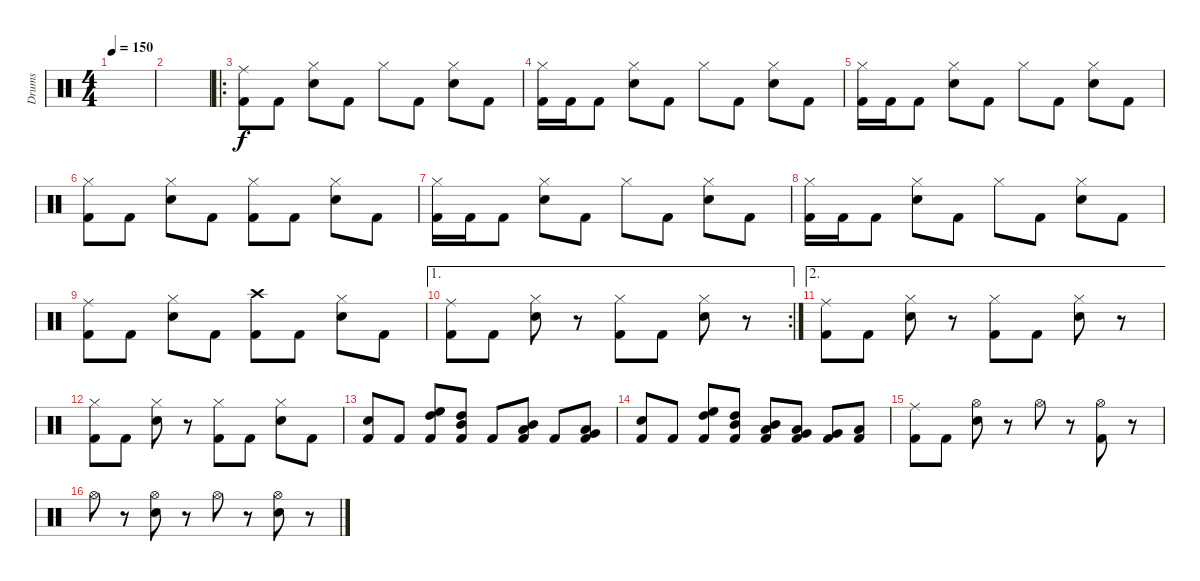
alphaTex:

\track ("Drums" "Drums") {instrument percussion}
\staff {score}
\articulation defaults
\ts (4 4)
\tempo 150
\clef neutral
\ks c
|
|
\ro
("Ride (middle)" "Kick (hit) 2").8 "Kick (hit) 2".8 ("Hi-Hat (closed)" "Electric Snare (hit)").8 "Kick (hit) 2".8 "Hi-Hat (closed)".8 "Kick (hit) 2".8 ("Hi-Hat (closed)" "Electric Snare (hit)").8 "Kick (hit) 2".8 |
("Hi-Hat (closed)" "Kick (hit) 2").16 "Kick (hit) 2".16 "Kick (hit) 2".8 ("Hi-Hat (closed)" "Electric Snare (hit)").8 "Kick (hit) 2".8 "Hi-Hat (closed)".8 "Kick (hit) 2".8 ("Hi-Hat (closed)" "Electric Snare (hit)").8 "Kick (hit) 2".8 |
("Hi-Hat (closed)" "Kick (hit) 2").16 "Kick (hit) 2".16 "Kick (hit) 2".8 ("Hi-Hat (closed)" "Electric Snare (hit)").8 "Kick (hit) 2".8 "Hi-Hat (closed)".8 "Kick (hit) 2".8 ("Hi-Hat (closed)" "Electric Snare (hit)").8 "Kick (hit) 2".8 |
("Hi-Hat (closed)" "Kick (hit) 2").8 "Kick (hit) 2".8 ("Hi-Hat (closed)" "Electric Snare (hit)").8 "Kick (hit) 2".8 ("Hi-Hat (closed)" "Kick (hit) 2").8 "Kick (hit) 2".8 ("Hi-Hat (closed)" "Electric Snare (hit)").8 "Kick (hit) 2".8 |
("Hi-Hat (closed)" "Kick (hit) 2").16 "Kick (hit) 2".16 "Kick (hit) 2".8 ("Hi-Hat (closed)" "Electric Snare (hit)").8 "Kick (hit) 2".8 "Hi-Hat (closed)".8 "Kick (hit) 2".8 ("Hi-Hat (closed)" "Electric Snare (hit)").8 "Kick (hit) 2".8 |
("Hi-Hat (closed)" "Kick (hit) 2").16 "Kick (hit) 2".16 "Kick (hit) 2".8 ("Hi-Hat (closed)" "Electric Snare (hit)").8 "Kick (hit) 2".8 "Hi-Hat (closed)".8 "Kick (hit) 2".8 ("Hi-Hat (closed)" "Electric Snare (hit)").8 "Kick (hit) 2".8 |
("Ride (middle)" "Kick (hit) 2").8 "Kick (hit) 2".8 ("Hi-Hat (closed)" "Electric Snare (hit)").8 "Kick (hit) 2".8 ("Crash high (hit)" "Kick (hit) 2").8 "Kick (hit) 2".8 ("Hi-Hat (closed)" "Electric Snare (hit)").8 "Kick (hit) 2".8 |
\ae 1
\rc 2
("Ride (middle)" "Kick (hit) 2").8 "Kick (hit) 2".8 ("Hi-Hat (closed)" "Electric Snare (hit)").8 r.8 ("Hi-Hat (closed)" "Kick (hit) 2").8 "Kick (hit) 2".8 ("Hi-Hat (closed)" "Electric Snare (hit)").8 r.8 |
\ae 2
("Ride (middle)" "Kick (hit) 2").8 "Kick (hit) 2".8 ("Hi-Hat (closed)" "Electric Snare (hit)").8 r.8 ("Hi-Hat (closed)" "Kick (hit) 2").8 "Kick (hit) 2".8 ("Hi-Hat (closed)" "Electric Snare (hit)").8 r.8 |
("Hi-Hat (closed)" "Kick (hit) 2").8 "Kick (hit) 2".8 ("Hi-Hat (closed)" "Electric Snare (hit)").8 r.8 ("Hi-Hat (closed)" "Kick (hit) 2").8 "Kick (hit) 2".8 ("Hi-Hat (closed)" "Electric Snare (hit)").8 "Kick (hit) 2".8 |
("Electric Snare (hit)" "Kick (hit) 2").8 "Kick (hit) 2".8 ("High Floor Tom (hit)" "High Tom (hit)" "Kick (hit) 2").8 ("Mid Tom (hit)" "High Tom (hit)" "Kick (hit) 2").8 "Kick (hit) 2".8 ("Mid Tom (hit)" "Low Tom (hit)" "Kick (hit) 2").8 "Kick (hit) 2".8 ("Very Low Tom (hit)" "Low Tom (hit)" "Kick (hit) 2").8 |
("Electric Snare (hit)" "Kick (hit) 2").8 "Kick (hit) 2".8 ("High Floor Tom (hit)" "High Tom (hit)" "Kick (hit) 2").8 ("Mid Tom (hit)" "High Tom (hit)" "Kick (hit) 2").8 ("Mid Tom (hit)" "Low Tom (hit)" "Kick (hit) 2").8 ("Very Low Tom (hit)" "Low Tom (hit)" "Kick (hit) 2").8 ("Very Low Tom (hit)" "Kick (hit) 2").8 ("Low Floor Tom (hit)" "Kick (hit) 2").8 |
("Ride (middle)" "Kick (hit) 2").8 "Kick (hit) 2".8 ("Hi-Hat (open)" "Electric Snare (hit)").8 r.8 "Hi-Hat (open)".8 r.8 ("Hi-Hat (open)" "Kick (hit) 2").8 r.8 |
"Hi-Hat (open)".8 r.8 ("Hi-Hat (open)" "Electric Snare (hit)").8 r.8 "Hi-Hat (open)".8 r.8 ("Hi-Hat (open)" "Electric Snare (hit)").8 r.8
